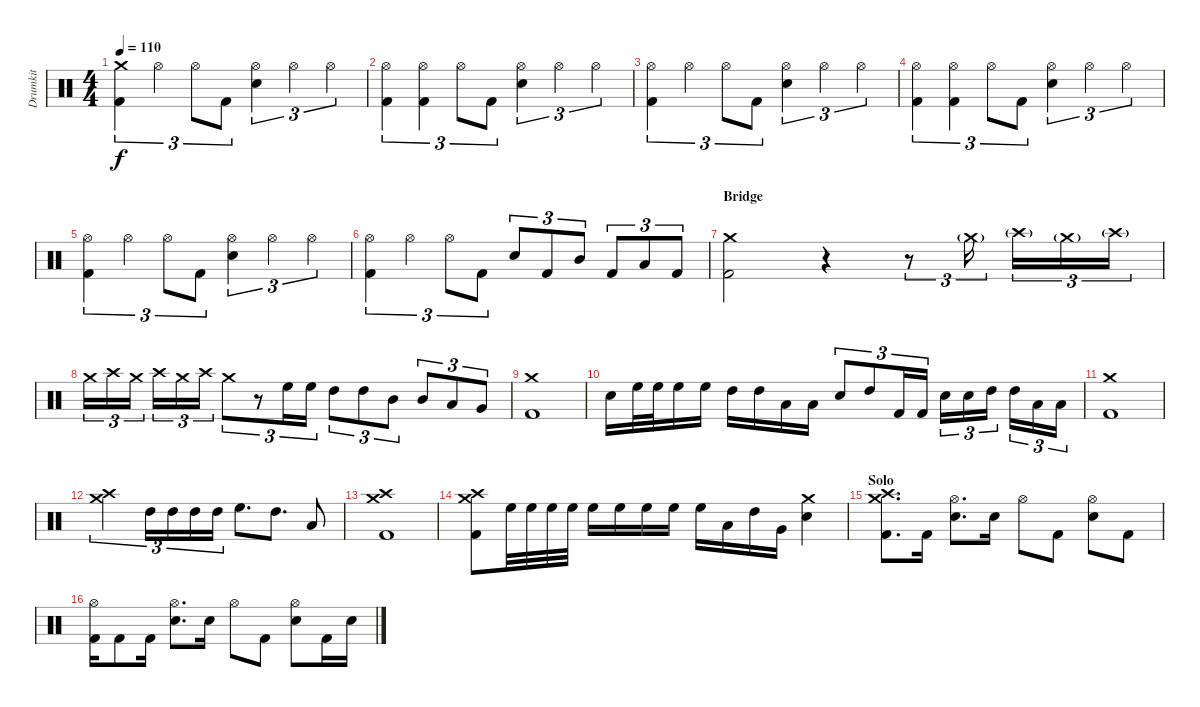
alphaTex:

\track ("Drumkit" "Drumkit") {instrument percussion}
\staff {score}
\articulation defaults
\ts (4 4)
\tempo 110
\clef neutral
\ks c
("Crash medium (hit)" "Kick (hit) 2").4{tu (3 2) dy f} "Hi-Hat (open)".4{tu (3 2)} "Hi-Hat (open)".8{tu (3 2)} "Kick (hit) 2".8{tu (3 2)} ("Hi-Hat (open)" "Snare (hit) 2").4{tu (3 2)} "Hi-Hat (open)".4{tu (3 2)} "Hi-Hat (open)".4{tu (3 2)} |
("Hi-Hat (open)" "Kick (hit) 2").4{tu (3 2)} ("Hi-Hat (open)" "Kick (hit) 2").4{tu (3 2)} "Hi-Hat (open)".8{tu (3 2)} "Kick (hit) 2".8{tu (3 2)} ("Hi-Hat (open)" "Snare (hit) 2").4{tu (3 2)} "Hi-Hat (open)".4{tu (3 2)} "Hi-Hat (open)".4{tu (3 2)} |
("Hi-Hat (open)" "Kick (hit) 2").4{tu (3 2)} "Hi-Hat (open)".4{tu (3 2)} "Hi-Hat (open)".8{tu (3 2)} "Kick (hit) 2".8{tu (3 2)} ("Hi-Hat (open)" "Snare (hit) 2").4{tu (3 2)} "Hi-Hat (open)".4{tu (3 2)} "Hi-Hat (open)".4{tu (3 2)} |
("Hi-Hat (open)" "Kick (hit) 2").4{tu (3 2)} ("Hi-Hat (open)" "Kick (hit) 2").4{tu (3 2)} "Hi-Hat (open)".8{tu (3 2)} "Kick (hit) 2".8{tu (3 2)} ("Hi-Hat (open)" "Snare (hit) 2").4{tu (3 2)} "Hi-Hat (open)".4{tu (3 2)} "Hi-Hat (open)".4{tu (3 2)} |
("Hi-Hat (open)" "Kick (hit) 2").4{tu (3 2)} "Hi-Hat (open)".4{tu (3 2)} "Hi-Hat (open)".8{tu (3 2)} "Kick (hit) 2".8{tu (3 2)} ("Hi-Hat (open)" "Snare (hit) 2").4{tu (3 2)} "Hi-Hat (open)".4{tu (3 2)} "Hi-Hat (open)".4{tu (3 2)} |
("Hi-Hat (open)" "Kick (hit) 2").4{tu (3 2)} "Hi-Hat (open)".4{tu (3 2)} "Hi-Hat (open)".8{tu (3 2)} "Kick (hit) 2".8{tu (3 2)} "Snare (hit) 2".8{tu (3 2)} "Kick (hit) 2".8{tu (3 2)} "Mid Tom (hit)".8{tu (3 2)} "Kick (hit) 2".8{tu (3 2)} "Low Tom (hit)".8{tu (3 2)} "Kick (hit) 2".8{tu (3 2)} |
\section ("" "Bridge")
("Crash medium (hit)" "Kick (hit) 2").2 r.4 r.8{tu (3 2)} "Crash medium (hit)"{g}.16{tu (3 2)} "Crash high (hit)"{g}.16{tu (3 2)} "Crash medium (hit)"{g}.16{tu (3 2)} "Crash high (hit)"{g}.16{tu (3 2)} |
"Crash medium (hit)".16{tu (3 2)} "Crash high (hit)".16{tu (3 2)} "Crash medium (hit)".16{tu (3 2)} "Crash high (hit)".16{tu (3 2)} "Crash medium (hit)".16{tu (3 2)} "Crash high (hit)".16{tu (3 2)} "Crash medium (hit)".8{tu (3 2)} r.8{tu (3 2)} "High Floor Tom (hit)".16{tu (3 2)} "High Floor Tom (hit)".16{tu (3 2)} "High Tom (hit)".8{tu (3 2)} "High Tom (hit)".8{tu (3 2)} "Mid Tom (hit)".8{tu (3 2)} "Mid Tom (hit)".8{tu (3 2)} "Low Tom (hit)".8{tu (3 2)} "Very Low Tom (hit)".8{tu (3 2)} |
("Crash medium (hit)" "Kick (hit) 2").1 |
"Snare (hit) 2".16 "High Floor Tom (hit)".32 "High Floor Tom (hit)".32 "High Floor Tom (hit)".16 "High Floor Tom (hit)".16 "High Tom (hit)".16 "High Tom (hit)".16 "Low Tom (hit)".16 "Low Tom (hit)".16 "Snare (hit) 2".8{tu (3 2)} "High Tom (hit)".8{tu (3 2)} "Kick (hit) 2".16{tu (3 2)} "Kick (hit) 2".16{tu (3 2)} "Snare (hit) 2".16{tu (3 2)} "Snare (hit) 2".16{tu (3 2)} "High Tom (hit)".16{tu (3 2)} "High Tom (hit)".16{tu (3 2)} "Low Tom (hit)".16{tu (3 2)} "Low Tom (hit)".16{tu (3 2)} |
("Crash medium (hit)" "Kick (hit) 2").1 |
("Crash medium (hit)" "Crash high (hit)").2{tu (3 2)} "High Tom (hit)".16{tu (3 2)} "High Tom (hit)".16{tu (3 2)} "High Tom (hit)".16{tu (3 2)} "High Tom (hit)".16{tu (3 2)} "High Floor Tom (hit)".8{d} "High Tom (hit)".8{d} "Low Tom (hit)".8 |
("Crash medium (hit)" "Crash high (hit)" "Kick (hit) 2").1 |
("Crash medium (hit)" "Crash high (hit)" "Kick (hit) 2").8 "High Floor Tom (hit)".32 "High Floor Tom (hit)".32 "High Floor Tom (hit)".32 "High Floor Tom (hit)".32 "High Floor Tom (hit)".16 "High Floor Tom (hit)".16 "High Floor Tom (hit)".16 "High Floor Tom (hit)".16 "High Floor Tom (hit)".16 "Low Tom (hit)".16 "High Tom (hit)".16 "Very Low Tom (hit)".16 ("Crash medium (hit)" "Snare (hit) 2").4 |
\section ("" "Solo")
("Crash medium (hit)" "Crash high (hit)" "Kick (hit) 2").8{d} "Kick (hit) 2".16 ("Hi-Hat (open)" "Snare (hit) 2").8{d} "Snare (hit) 2".16 "Hi-Hat (open)".8 "Kick (hit) 2".8 ("Hi-Hat (open)" "Snare (hit) 2").8 "Kick (hit) 2".8 |
("Hi-Hat (open)" "Kick (hit) 2").16 "Kick (hit) 2".8 "Kick (hit) 2".16 ("Hi-Hat (open)" "Snare (hit) 2").8{d} "Snare (hit) 2".16 "Hi-Hat (open)".8 "Kick (hit) 2".8 ("Hi-Hat (open)" "Snare (hit) 2").8 "Kick (hit) 2".16 "Snare (hit) 2".16
